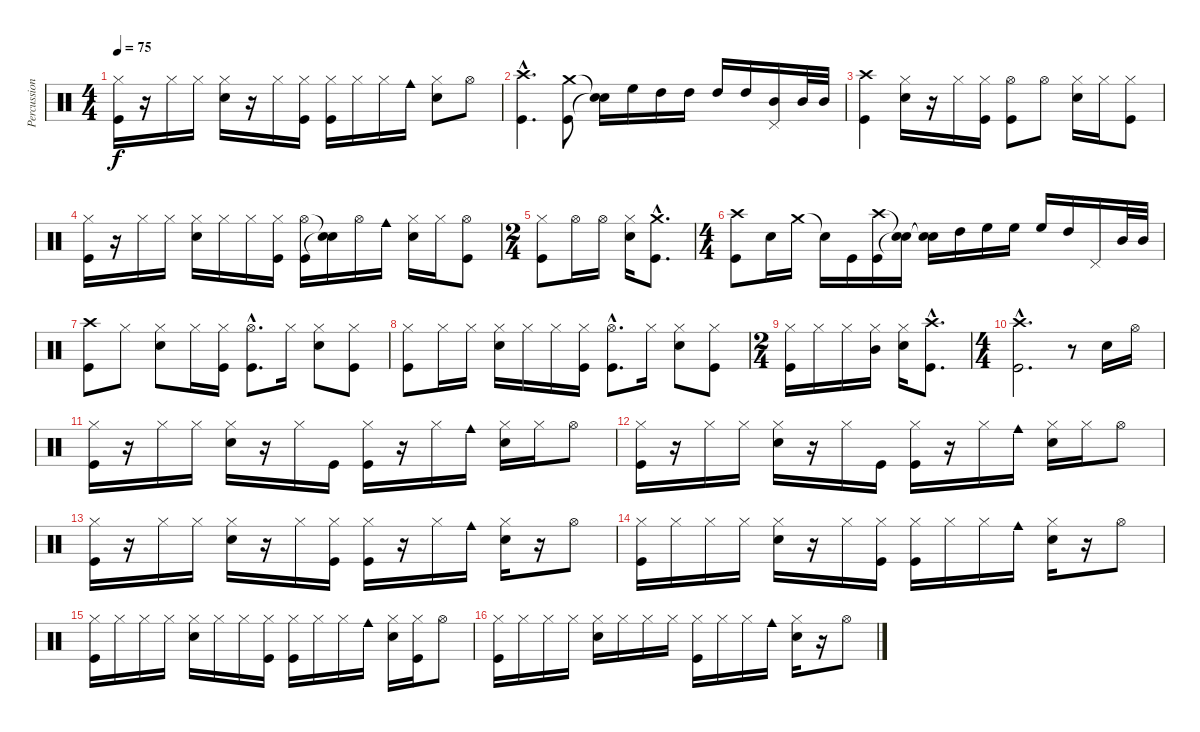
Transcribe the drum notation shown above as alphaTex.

\track ("Percussions" "Percussion") {instrument percussion}
\staff {score}
\articulation defaults
\ts (4 4)
\tempo 75
\clef neutral
\ks c
("Hi-Hat (closed)" "Kick (hit)").16{dy f} r.16 "Hi-Hat (closed)".16 "Hi-Hat (closed)".16 ("Hi-Hat (closed)" "Electric Snare (hit)").16 r.16 "Hi-Hat (closed)".16 ("Hi-Hat (closed)" "Kick (hit)").16 ("Hi-Hat (closed)" "Kick (hit)").16 "Hi-Hat (closed)".16 "Hi-Hat (closed)".16 "Cowbell medium (hit)".16 ("Hi-Hat (closed)" "Electric Snare (hit)").8 "Hi-Hat (open)".8 |
("Crash high (hit)"{hac} "Kick (hit)"{hac}).4{d} ("Crash medium (hit)" "Kick (hit)").8 ("Snare (hit)"{t} "Snare (hit)"{t}).16 "High Floor Tom (hit)".16 "High Tom (hit)".16 "High Tom (hit)".16 "High Tom (hit)".16 "High Tom (hit)".16 ("Mid Tom (hit)" "Pedal Hi-Hat (hit)").16 "Mid Tom (hit)".32 "Mid Tom (hit)".32 |
("Crash high (hit)" "Kick (hit)").4 ("Hi-Hat (closed)" "Electric Snare (hit)").16 r.16 "Hi-Hat (closed)".16 ("Hi-Hat (closed)" "Kick (hit)").16 ("Hi-Hat (open)" "Kick (hit)").8 "Hi-Hat (open)".8 ("Hi-Hat (closed)" "Electric Snare (hit)").16 "Hi-Hat (closed)".16 ("Hi-Hat (closed)" "Kick (hit)").8 |
("Hi-Hat (closed)" "Kick (hit)").16 r.16 "Hi-Hat (closed)".16 "Hi-Hat (closed)".16 ("Hi-Hat (closed)" "Electric Snare (hit)").16 "Hi-Hat (closed)".16 "Hi-Hat (closed)".16 ("Hi-Hat (closed)" "Kick (hit)").16 ("Hi-Hat (open)" "Kick (hit)").16 ("Snare (hit)"{t} "Snare (hit)"{t}).16 "Hi-Hat (open)".16 "Cowbell medium (hit)".16 ("Hi-Hat (closed)" "Electric Snare (hit)").16 "Hi-Hat (closed)".16 ("Hi-Hat (open)" "Kick (hit)").8 |
\ts (2 4)
("Hi-Hat (closed)" "Kick (hit)").8 "Hi-Hat (open)".16 "Hi-Hat (open)".16 ("Hi-Hat (closed)" "Electric Snare (hit)").16 ("Crash medium (hit)"{hac} "Kick (hit)"{hac}).8{d} |
\ts (4 4)
("Crash high (hit)" "Kick (hit)").8 "Electric Snare (hit)".16 "Crash medium (hit)".16 "Snare (hit)"{t}.16 "Kick (hit)".16 ("Crash high (hit)" "Kick (hit)").16 ("Snare (hit)"{t} "Snare (hit)"{t}).16 ("Snare (hit)"{t} "Snare (hit)"{t}).16 "High Tom (hit)".16 "High Floor Tom (hit)".16 "High Floor Tom (hit)".16 "High Floor Tom (hit)".16 "High Tom (hit)".16 "Pedal Hi-Hat (hit)".16 "Mid Tom (hit)".32 "Mid Tom (hit)".32 |
("Crash high (hit)" "Kick (hit)").8 "Hi-Hat (closed)".8 ("Hi-Hat (closed)" "Electric Snare (hit)").8 "Hi-Hat (closed)".16 ("Hi-Hat (closed)" "Kick (hit)").16 ("Hi-Hat (open)"{hac} "Kick (hit)"{hac}).8{d} "Hi-Hat (closed)".16 ("Hi-Hat (closed)" "Electric Snare (hit)").8 ("Hi-Hat (closed)" "Kick (hit)").8 |
("Hi-Hat (closed)" "Kick (hit)").8 "Hi-Hat (closed)".16 "Hi-Hat (closed)".16 ("Hi-Hat (closed)" "Electric Snare (hit)").16 "Hi-Hat (closed)".16 "Hi-Hat (closed)".16 ("Hi-Hat (closed)" "Kick (hit)").16 ("Hi-Hat (open)"{hac} "Kick (hit)"{hac}).8{d} "Hi-Hat (closed)".16 ("Hi-Hat (closed)" "Electric Snare (hit)").8 ("Hi-Hat (closed)" "Kick (hit)").8 |
\ts (2 4)
("Hi-Hat (closed)" "Kick (hit)").16 "Hi-Hat (closed)".16 "Hi-Hat (closed)".16 ("Hi-Hat (closed)" "Mid Tom (hit)").16 ("Hi-Hat (closed)" "Electric Snare (hit)").16 ("Crash high (hit)"{hac} "Kick (hit)"{hac}).8{d} |
\ts (4 4)
("Crash high (hit)"{hac} "Kick (hit)"{hac}).2{d} r.8 "Electric Snare (hit)".16 "Hi-Hat (open)".16 |
("Hi-Hat (closed)" "Kick (hit)").16 r.16 "Hi-Hat (closed)".16 "Hi-Hat (closed)".16 ("Hi-Hat (closed)" "Electric Snare (hit)").16 r.16 "Hi-Hat (closed)".16 "Kick (hit)".16 ("Hi-Hat (closed)" "Kick (hit)").16 r.16 "Hi-Hat (closed)".16 "Cowbell medium (hit)".16 ("Hi-Hat (closed)" "Electric Snare (hit)").16 "Hi-Hat (closed)".16 "Hi-Hat (open)".8 |
("Hi-Hat (closed)" "Kick (hit)").16 r.16 "Hi-Hat (closed)".16 "Hi-Hat (closed)".16 ("Hi-Hat (closed)" "Electric Snare (hit)").16 r.16 "Hi-Hat (closed)".16 "Kick (hit)".16 ("Hi-Hat (closed)" "Kick (hit)").16 r.16 "Hi-Hat (closed)".16 "Cowbell medium (hit)".16 ("Hi-Hat (closed)" "Electric Snare (hit)").16 "Hi-Hat (closed)".16 "Hi-Hat (open)".8 |
("Hi-Hat (closed)" "Kick (hit)").16 r.16 "Hi-Hat (closed)".16 "Hi-Hat (closed)".16 ("Hi-Hat (closed)" "Electric Snare (hit)").16 r.16 "Hi-Hat (closed)".16 ("Hi-Hat (closed)" "Kick (hit)").16 ("Hi-Hat (closed)" "Kick (hit)").16 r.16 "Hi-Hat (closed)".16 "Cowbell medium (hit)".16 ("Hi-Hat (closed)" "Electric Snare (hit)").16 r.16 "Hi-Hat (open)".8 |
("Hi-Hat (closed)" "Kick (hit)").16 "Hi-Hat (closed)".16 "Hi-Hat (closed)".16 "Hi-Hat (closed)".16 ("Hi-Hat (closed)" "Electric Snare (hit)").16 r.16 "Hi-Hat (closed)".16 ("Hi-Hat (closed)" "Kick (hit)").16 ("Hi-Hat (closed)" "Kick (hit)").16 "Hi-Hat (closed)".16 "Hi-Hat (closed)".16 "Cowbell medium (hit)".16 ("Hi-Hat (closed)" "Electric Snare (hit)").16 r.16 "Hi-Hat (open)".8 |
("Hi-Hat (closed)" "Kick (hit)").16 "Hi-Hat (closed)".16 "Hi-Hat (closed)".16 "Hi-Hat (closed)".16 ("Hi-Hat (closed)" "Electric Snare (hit)").16 "Hi-Hat (closed)".16 "Hi-Hat (closed)".16 ("Hi-Hat (closed)" "Kick (hit)").16 ("Hi-Hat (closed)" "Kick (hit)").16 "Hi-Hat (closed)".16 "Hi-Hat (closed)".16 "Cowbell medium (hit)".16 ("Hi-Hat (closed)" "Electric Snare (hit)").16 ("Hi-Hat (closed)" "Kick (hit)").16 "Hi-Hat (open)".8 |
("Hi-Hat (closed)" "Kick (hit)").16 "Hi-Hat (closed)".16 "Hi-Hat (closed)".16 "Hi-Hat (closed)".16 ("Hi-Hat (closed)" "Electric Snare (hit)").16 "Hi-Hat (closed)".16 "Hi-Hat (closed)".16 "Hi-Hat (closed)".16 ("Hi-Hat (closed)" "Kick (hit)").16 "Hi-Hat (closed)".16 "Hi-Hat (closed)".16 "Cowbell medium (hit)".16 ("Hi-Hat (closed)" "Electric Snare (hit)").16 r.16 "Hi-Hat (open)".8
